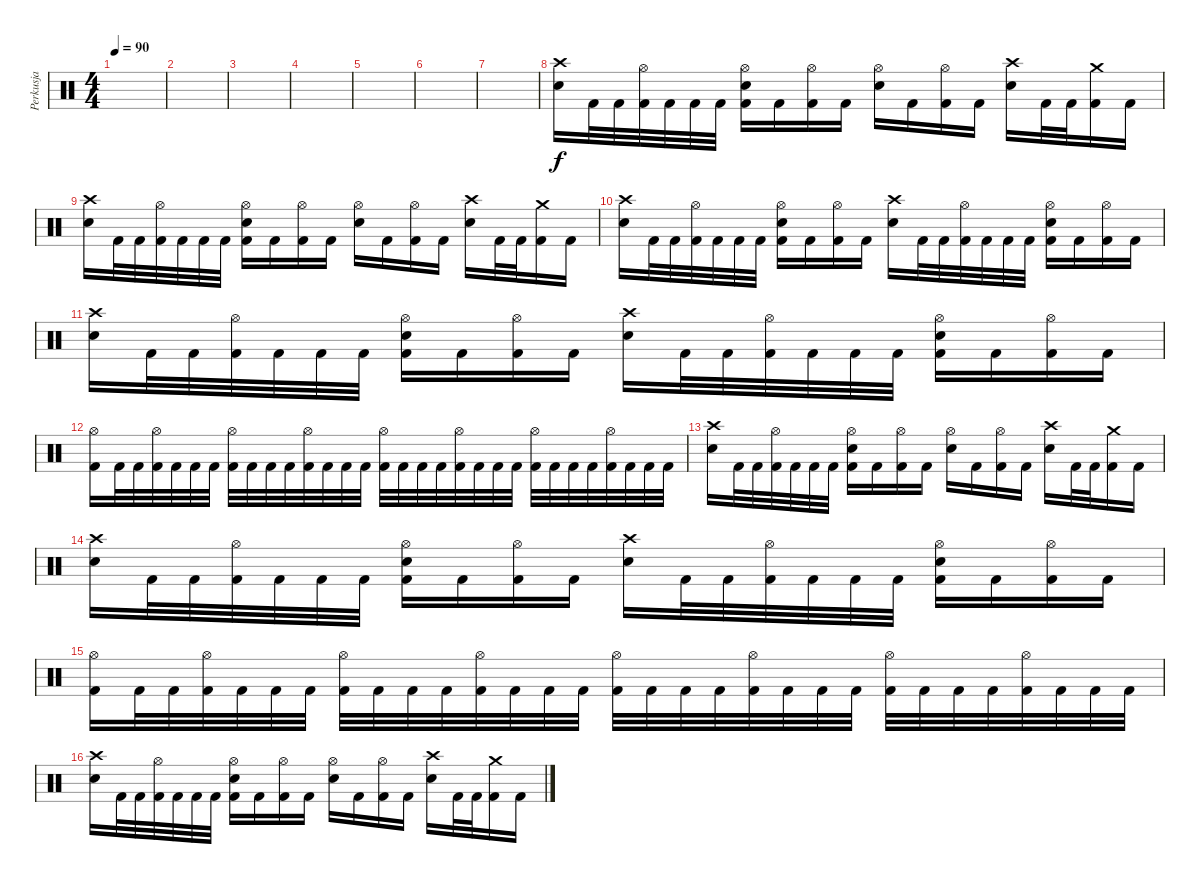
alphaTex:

\track ("Perkusja" "Perkusja") {instrument percussion}
\staff {score}
\articulation defaults
\ts (4 4)
\tempo 90
\clef neutral
\ks c
|
|
|
|
|
|
|
("Crash high (hit)" "Electric Snare (hit)").16 "Kick (hit) 2".32 "Kick (hit) 2".32 ("Hi-Hat (open)" "Kick (hit) 2").32 "Kick (hit) 2".32 "Kick (hit) 2".32 "Kick (hit) 2".32 ("Hi-Hat (open)" "Electric Snare (hit)" "Kick (hit) 2").16 "Kick (hit) 2".16 ("Hi-Hat (open)" "Kick (hit) 2").16 "Kick (hit) 2".16 ("Hi-Hat (open)" "Electric Snare (hit)").16 "Kick (hit) 2".16 ("Hi-Hat (open)" "Kick (hit) 2").16 "Kick (hit) 2".16 ("Crash high (hit)" "Electric Snare (hit)").16 "Kick (hit) 2".32 "Kick (hit) 2".32 ("Crash medium (hit)" "Kick (hit) 2").16 "Kick (hit) 2".16 |
("Crash high (hit)" "Electric Snare (hit)").16 "Kick (hit) 2".32 "Kick (hit) 2".32 ("Hi-Hat (open)" "Kick (hit) 2").32 "Kick (hit) 2".32 "Kick (hit) 2".32 "Kick (hit) 2".32 ("Hi-Hat (open)" "Electric Snare (hit)" "Kick (hit) 2").16 "Kick (hit) 2".16 ("Hi-Hat (open)" "Kick (hit) 2").16 "Kick (hit) 2".16 ("Hi-Hat (open)" "Electric Snare (hit)").16 "Kick (hit) 2".16 ("Hi-Hat (open)" "Kick (hit) 2").16 "Kick (hit) 2".16 ("Crash high (hit)" "Electric Snare (hit)").16 "Kick (hit) 2".32 "Kick (hit) 2".32 ("Crash medium (hit)" "Kick (hit) 2").16 "Kick (hit) 2".16 |
("Crash high (hit)" "Electric Snare (hit)").16 "Kick (hit) 2".32 "Kick (hit) 2".32 ("Hi-Hat (open)" "Kick (hit) 2").32 "Kick (hit) 2".32 "Kick (hit) 2".32 "Kick (hit) 2".32 ("Hi-Hat (open)" "Electric Snare (hit)" "Kick (hit) 2").16 "Kick (hit) 2".16 ("Hi-Hat (open)" "Kick (hit) 2").16 "Kick (hit) 2".16 ("Crash high (hit)" "Electric Snare (hit)").16 "Kick (hit) 2".32 "Kick (hit) 2".32 ("Hi-Hat (open)" "Kick (hit) 2").32 "Kick (hit) 2".32 "Kick (hit) 2".32 "Kick (hit) 2".32 ("Hi-Hat (open)" "Electric Snare (hit)" "Kick (hit) 2").16 "Kick (hit) 2".16 ("Hi-Hat (open)" "Kick (hit) 2").16 "Kick (hit) 2".16 |
("Crash high (hit)" "Electric Snare (hit)").16 "Kick (hit) 2".32 "Kick (hit) 2".32 ("Hi-Hat (open)" "Kick (hit) 2").32 "Kick (hit) 2".32 "Kick (hit) 2".32 "Kick (hit) 2".32 ("Hi-Hat (open)" "Electric Snare (hit)" "Kick (hit) 2").16 "Kick (hit) 2".16 ("Hi-Hat (open)" "Kick (hit) 2").16 "Kick (hit) 2".16 ("Crash high (hit)" "Electric Snare (hit)").16 "Kick (hit) 2".32 "Kick (hit) 2".32 ("Hi-Hat (open)" "Kick (hit) 2").32 "Kick (hit) 2".32 "Kick (hit) 2".32 "Kick (hit) 2".32 ("Hi-Hat (open)" "Electric Snare (hit)" "Kick (hit) 2").16 "Kick (hit) 2".16 ("Hi-Hat (open)" "Kick (hit) 2").16 "Kick (hit) 2".16 |
("Hi-Hat (open)" "Kick (hit) 2").16 "Kick (hit) 2".32 "Kick (hit) 2".32 ("Hi-Hat (open)" "Kick (hit) 2").32 "Kick (hit) 2".32 "Kick (hit) 2".32 "Kick (hit) 2".32 ("Hi-Hat (open)" "Kick (hit) 2").32 "Kick (hit) 2".32 "Kick (hit) 2".32 "Kick (hit) 2".32 ("Hi-Hat (open)" "Kick (hit) 2").32 "Kick (hit) 2".32 "Kick (hit) 2".32 "Kick (hit) 2".32 ("Hi-Hat (open)" "Kick (hit) 2").32 "Kick (hit) 2".32 "Kick (hit) 2".32 "Kick (hit) 2".32 ("Hi-Hat (open)" "Kick (hit) 2").32 "Kick (hit) 2".32 "Kick (hit) 2".32 "Kick (hit) 2".32 ("Hi-Hat (open)" "Kick (hit) 2").32 "Kick (hit) 2".32 "Kick (hit) 2".32 "Kick (hit) 2".32 ("Hi-Hat (open)" "Kick (hit) 2").32 "Kick (hit) 2".32 "Kick (hit) 2".32 "Kick (hit) 2".32 |
("Crash high (hit)" "Electric Snare (hit)").16 "Kick (hit) 2".32 "Kick (hit) 2".32 ("Hi-Hat (open)" "Kick (hit) 2").32 "Kick (hit) 2".32 "Kick (hit) 2".32 "Kick (hit) 2".32 ("Hi-Hat (open)" "Electric Snare (hit)" "Kick (hit) 2").16 "Kick (hit) 2".16 ("Hi-Hat (open)" "Kick (hit) 2").16 "Kick (hit) 2".16 ("Hi-Hat (open)" "Electric Snare (hit)").16 "Kick (hit) 2".16 ("Hi-Hat (open)" "Kick (hit) 2").16 "Kick (hit) 2".16 ("Crash high (hit)" "Electric Snare (hit)").16 "Kick (hit) 2".32 "Kick (hit) 2".32 ("Crash medium (hit)" "Kick (hit) 2").16 "Kick (hit) 2".16 |
("Crash high (hit)" "Electric Snare (hit)").16 "Kick (hit) 2".32 "Kick (hit) 2".32 ("Hi-Hat (open)" "Kick (hit) 2").32 "Kick (hit) 2".32 "Kick (hit) 2".32 "Kick (hit) 2".32 ("Hi-Hat (open)" "Electric Snare (hit)" "Kick (hit) 2").16 "Kick (hit) 2".16 ("Hi-Hat (open)" "Kick (hit) 2").16 "Kick (hit) 2".16 ("Crash high (hit)" "Electric Snare (hit)").16 "Kick (hit) 2".32 "Kick (hit) 2".32 ("Hi-Hat (open)" "Kick (hit) 2").32 "Kick (hit) 2".32 "Kick (hit) 2".32 "Kick (hit) 2".32 ("Hi-Hat (open)" "Electric Snare (hit)" "Kick (hit) 2").16 "Kick (hit) 2".16 ("Hi-Hat (open)" "Kick (hit) 2").16 "Kick (hit) 2".16 |
("Hi-Hat (open)" "Kick (hit) 2").16 "Kick (hit) 2".32 "Kick (hit) 2".32 ("Hi-Hat (open)" "Kick (hit) 2").32 "Kick (hit) 2".32 "Kick (hit) 2".32 "Kick (hit) 2".32 ("Hi-Hat (open)" "Kick (hit) 2").32 "Kick (hit) 2".32 "Kick (hit) 2".32 "Kick (hit) 2".32 ("Hi-Hat (open)" "Kick (hit) 2").32 "Kick (hit) 2".32 "Kick (hit) 2".32 "Kick (hit) 2".32 ("Hi-Hat (open)" "Kick (hit) 2").32 "Kick (hit) 2".32 "Kick (hit) 2".32 "Kick (hit) 2".32 ("Hi-Hat (open)" "Kick (hit) 2").32 "Kick (hit) 2".32 "Kick (hit) 2".32 "Kick (hit) 2".32 ("Hi-Hat (open)" "Kick (hit) 2").32 "Kick (hit) 2".32 "Kick (hit) 2".32 "Kick (hit) 2".32 ("Hi-Hat (open)" "Kick (hit) 2").32 "Kick (hit) 2".32 "Kick (hit) 2".32 "Kick (hit) 2".32 |
("Crash high (hit)" "Electric Snare (hit)").16 "Kick (hit) 2".32 "Kick (hit) 2".32 ("Hi-Hat (open)" "Kick (hit) 2").32 "Kick (hit) 2".32 "Kick (hit) 2".32 "Kick (hit) 2".32 ("Hi-Hat (open)" "Electric Snare (hit)" "Kick (hit) 2").16 "Kick (hit) 2".16 ("Hi-Hat (open)" "Kick (hit) 2").16 "Kick (hit) 2".16 ("Hi-Hat (open)" "Electric Snare (hit)").16 "Kick (hit) 2".16 ("Hi-Hat (open)" "Kick (hit) 2").16 "Kick (hit) 2".16 ("Crash high (hit)" "Electric Snare (hit)").16 "Kick (hit) 2".32 "Kick (hit) 2".32 ("Crash medium (hit)" "Kick (hit) 2").16 "Kick (hit) 2".16
